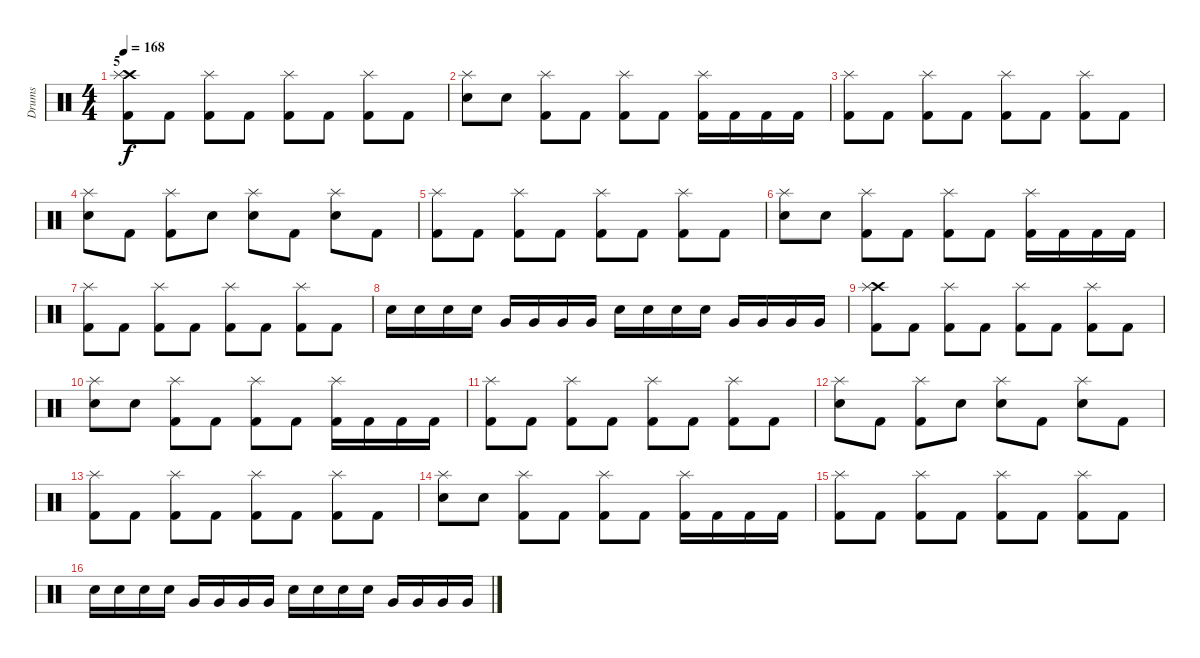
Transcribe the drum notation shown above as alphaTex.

\track ("Drums" "Drums") {instrument percussion}
\staff {score}
\articulation defaults
\ts (4 4)
\section ("" "5")
\tempo 168
\clef neutral
\ks c
("Crash high (hit)" "Kick (hit) 2" "Splash (hit)").8{dy f} "Kick (hit) 2".8 ("Kick (hit) 2" "Splash (hit)").8 "Kick (hit) 2".8 ("Kick (hit) 2" "Splash (hit)").8 "Kick (hit) 2".8 ("Kick (hit) 2" "Splash (hit)").8 "Kick (hit) 2".8 |
("Electric Snare (hit)" "Splash (hit)").8 "Electric Snare (hit)".8 ("Kick (hit) 2" "Splash (hit)").8 "Kick (hit) 2".8 ("Kick (hit) 2" "Splash (hit)").8 "Kick (hit) 2".8 ("Kick (hit) 2" "Splash (hit)").16 "Kick (hit) 2".16 "Kick (hit) 2".16 "Kick (hit) 2".16 |
("Kick (hit) 2" "Splash (hit)").8 "Kick (hit) 2".8 ("Kick (hit) 2" "Splash (hit)").8 "Kick (hit) 2".8 ("Kick (hit) 2" "Splash (hit)").8 "Kick (hit) 2".8 ("Kick (hit) 2" "Splash (hit)").8 "Kick (hit) 2".8 |
("Electric Snare (hit)" "Splash (hit)").8 "Kick (hit) 2".8 ("Kick (hit) 2" "Splash (hit)").8 "Electric Snare (hit)".8 ("Electric Snare (hit)" "Splash (hit)").8 "Kick (hit) 2".8 ("Electric Snare (hit)" "Splash (hit)").8 "Kick (hit) 2".8 |
("Kick (hit) 2" "Splash (hit)").8 "Kick (hit) 2".8 ("Kick (hit) 2" "Splash (hit)").8 "Kick (hit) 2".8 ("Kick (hit) 2" "Splash (hit)").8 "Kick (hit) 2".8 ("Kick (hit) 2" "Splash (hit)").8 "Kick (hit) 2".8 |
("Electric Snare (hit)" "Splash (hit)").8 "Electric Snare (hit)".8 ("Kick (hit) 2" "Splash (hit)").8 "Kick (hit) 2".8 ("Kick (hit) 2" "Splash (hit)").8 "Kick (hit) 2".8 ("Kick (hit) 2" "Splash (hit)").16 "Kick (hit) 2".16 "Kick (hit) 2".16 "Kick (hit) 2".16 |
("Kick (hit) 2" "Splash (hit)").8 "Kick (hit) 2".8 ("Kick (hit) 2" "Splash (hit)").8 "Kick (hit) 2".8 ("Kick (hit) 2" "Splash (hit)").8 "Kick (hit) 2".8 ("Kick (hit) 2" "Splash (hit)").8 "Kick (hit) 2".8 |
"Electric Snare (hit)".16 "Electric Snare (hit)".16 "Electric Snare (hit)".16 "Electric Snare (hit)".16 "Very Low Tom (hit)".16 "Very Low Tom (hit)".16 "Very Low Tom (hit)".16 "Very Low Tom (hit)".16 "Electric Snare (hit)".16 "Electric Snare (hit)".16 "Electric Snare (hit)".16 "Electric Snare (hit)".16 "Very Low Tom (hit)".16 "Very Low Tom (hit)".16 "Very Low Tom (hit)".16 "Very Low Tom (hit)".16 |
("Crash high (hit)" "Kick (hit) 2" "Splash (hit)").8 "Kick (hit) 2".8 ("Kick (hit) 2" "Splash (hit)").8 "Kick (hit) 2".8 ("Kick (hit) 2" "Splash (hit)").8 "Kick (hit) 2".8 ("Kick (hit) 2" "Splash (hit)").8 "Kick (hit) 2".8 |
("Electric Snare (hit)" "Splash (hit)").8 "Electric Snare (hit)".8 ("Kick (hit) 2" "Splash (hit)").8 "Kick (hit) 2".8 ("Kick (hit) 2" "Splash (hit)").8 "Kick (hit) 2".8 ("Kick (hit) 2" "Splash (hit)").16 "Kick (hit) 2".16 "Kick (hit) 2".16 "Kick (hit) 2".16 |
("Kick (hit) 2" "Splash (hit)").8 "Kick (hit) 2".8 ("Kick (hit) 2" "Splash (hit)").8 "Kick (hit) 2".8 ("Kick (hit) 2" "Splash (hit)").8 "Kick (hit) 2".8 ("Kick (hit) 2" "Splash (hit)").8 "Kick (hit) 2".8 |
("Electric Snare (hit)" "Splash (hit)").8 "Kick (hit) 2".8 ("Kick (hit) 2" "Splash (hit)").8 "Electric Snare (hit)".8 ("Electric Snare (hit)" "Splash (hit)").8 "Kick (hit) 2".8 ("Electric Snare (hit)" "Splash (hit)").8 "Kick (hit) 2".8 |
("Kick (hit) 2" "Splash (hit)").8 "Kick (hit) 2".8 ("Kick (hit) 2" "Splash (hit)").8 "Kick (hit) 2".8 ("Kick (hit) 2" "Splash (hit)").8 "Kick (hit) 2".8 ("Kick (hit) 2" "Splash (hit)").8 "Kick (hit) 2".8 |
("Electric Snare (hit)" "Splash (hit)").8 "Electric Snare (hit)".8 ("Kick (hit) 2" "Splash (hit)").8 "Kick (hit) 2".8 ("Kick (hit) 2" "Splash (hit)").8 "Kick (hit) 2".8 ("Kick (hit) 2" "Splash (hit)").16 "Kick (hit) 2".16 "Kick (hit) 2".16 "Kick (hit) 2".16 |
("Kick (hit) 2" "Splash (hit)").8 "Kick (hit) 2".8 ("Kick (hit) 2" "Splash (hit)").8 "Kick (hit) 2".8 ("Kick (hit) 2" "Splash (hit)").8 "Kick (hit) 2".8 ("Kick (hit) 2" "Splash (hit)").8 "Kick (hit) 2".8 |
"Electric Snare (hit)".16 "Electric Snare (hit)".16 "Electric Snare (hit)".16 "Electric Snare (hit)".16 "Very Low Tom (hit)".16 "Very Low Tom (hit)".16 "Very Low Tom (hit)".16 "Very Low Tom (hit)".16 "Electric Snare (hit)".16 "Electric Snare (hit)".16 "Electric Snare (hit)".16 "Electric Snare (hit)".16 "Very Low Tom (hit)".16 "Very Low Tom (hit)".16 "Very Low Tom (hit)".16 "Very Low Tom (hit)".16
